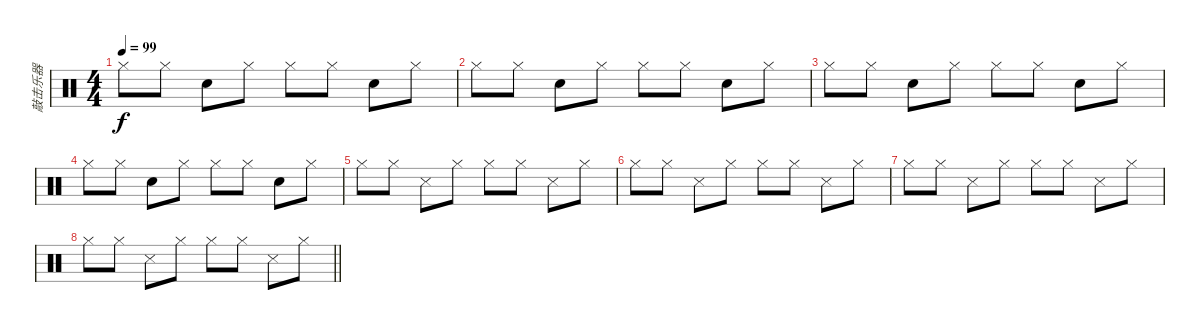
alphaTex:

\track ("敲击乐器" "敲击乐器") {instrument percussion}
\staff {score}
\articulation defaults
\ts (4 4)
\tempo 99
\clef neutral
\ks c "Hi-Hat (closed)".8{dy f} "Hi-Hat (closed)".8 "Snare (hit) 2".8 "Hi-Hat (closed)".8 "Hi-Hat (closed)".8 "Hi-Hat (closed)".8 "Snare (hit) 2".8 "Hi-Hat (closed)".8
|
"Hi-Hat (closed)".8 "Hi-Hat (closed)".8 "Snare (hit) 2".8 "Hi-Hat (closed)".8 "Hi-Hat (closed)".8 "Hi-Hat (closed)".8 "Snare (hit) 2".8 "Hi-Hat (closed)".8 |
"Hi-Hat (closed)".8 "Hi-Hat (closed)".8 "Snare (hit) 2".8 "Hi-Hat (closed)".8 "Hi-Hat (closed)".8 "Hi-Hat (closed)".8 "Snare (hit) 2".8 "Hi-Hat (closed)".8 |
"Hi-Hat (closed)".8 "Hi-Hat (closed)".8 "Snare (hit) 2".8 "Hi-Hat (closed)".8 "Hi-Hat (closed)".8 "Hi-Hat (closed)".8 "Snare (hit) 2".8 "Hi-Hat (closed)".8 |
"Hi-Hat (closed)".8 "Hi-Hat (closed)".8 "Snare (side stick) 3".8 "Hi-Hat (closed)".8 "Hi-Hat (closed)".8 "Hi-Hat (closed)".8 "Snare (side stick) 3".8 "Hi-Hat (closed)".8 |
"Hi-Hat (closed)".8 "Hi-Hat (closed)".8 "Snare (side stick) 3".8 "Hi-Hat (closed)".8 "Hi-Hat (closed)".8 "Hi-Hat (closed)".8 "Snare (side stick) 3".8 "Hi-Hat (closed)".8 |
"Hi-Hat (closed)".8 "Hi-Hat (closed)".8 "Snare (side stick) 3".8 "Hi-Hat (closed)".8 "Hi-Hat (closed)".8 "Hi-Hat (closed)".8 "Snare (side stick) 3".8 "Hi-Hat (closed)".8 |
\barLineRight lightlight "Hi-Hat (closed)".8 "Hi-Hat (closed)".8 "Snare (side stick) 3".8 "Hi-Hat (closed)".8 "Hi-Hat (closed)".8 "Hi-Hat (closed)".8 "Snare (side stick) 3".8 "Hi-Hat (closed)".8
